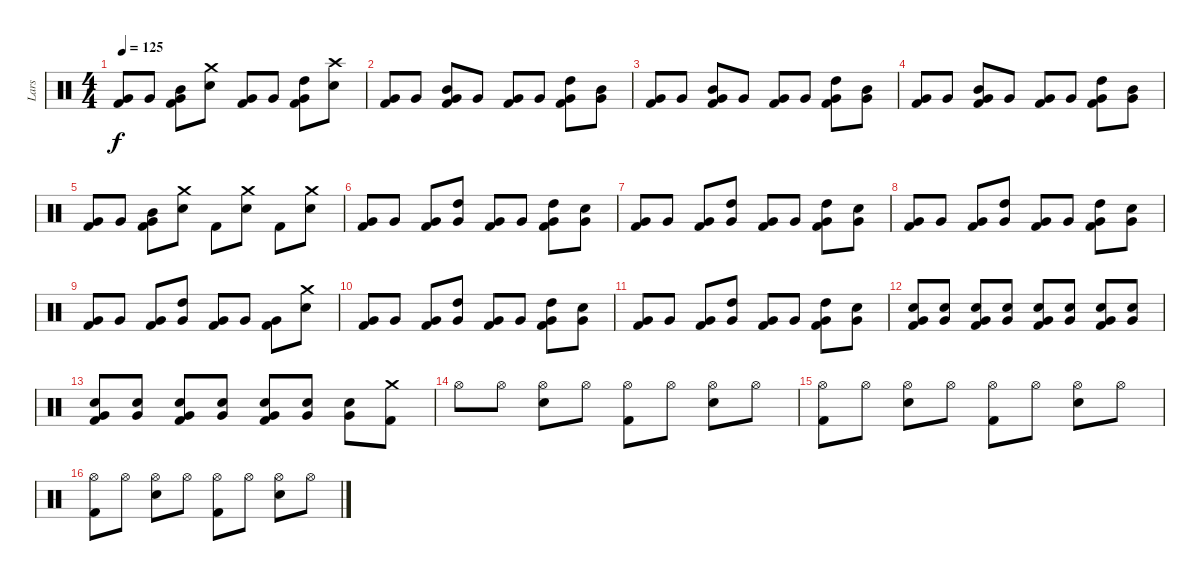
\track ("Lars" "Lars") {instrument percussion}
\staff {score}
\articulation defaults
\ts (4 4)
\tempo 125
\clef neutral
\ks c
("Very Low Tom (hit)" "Kick (hit) 2").8{dy f} "Very Low Tom (hit)".8 ("Mid Tom (hit)" "Very Low Tom (hit)" "Kick (hit) 2").8 ("Snare (hit) 2" "Crash medium (hit)").8 ("Very Low Tom (hit)" "Kick (hit) 2").8 "Very Low Tom (hit)".8 ("High Tom (hit)" "Very Low Tom (hit)" "Kick (hit) 2").8 ("Snare (hit) 2" "Crash high (hit)").8 |
("Very Low Tom (hit)" "Kick (hit) 2").8 "Very Low Tom (hit)".8 ("Mid Tom (hit)" "Very Low Tom (hit)" "Kick (hit) 2").8 "Very Low Tom (hit)".8 ("Very Low Tom (hit)" "Kick (hit) 2").8 "Very Low Tom (hit)".8 ("High Tom (hit)" "Very Low Tom (hit)" "Kick (hit) 2").8 ("Mid Tom (hit)" "Very Low Tom (hit)").8 |
("Very Low Tom (hit)" "Kick (hit) 2").8 "Very Low Tom (hit)".8 ("Mid Tom (hit)" "Very Low Tom (hit)" "Kick (hit) 2").8 "Very Low Tom (hit)".8 ("Very Low Tom (hit)" "Kick (hit) 2").8 "Very Low Tom (hit)".8 ("High Tom (hit)" "Very Low Tom (hit)" "Kick (hit) 2").8 ("Mid Tom (hit)" "Very Low Tom (hit)").8 |
("Very Low Tom (hit)" "Kick (hit) 2").8 "Very Low Tom (hit)".8 ("Mid Tom (hit)" "Very Low Tom (hit)" "Kick (hit) 2").8 "Very Low Tom (hit)".8 ("Very Low Tom (hit)" "Kick (hit) 2").8 "Very Low Tom (hit)".8 ("High Tom (hit)" "Very Low Tom (hit)" "Kick (hit) 2").8 ("Mid Tom (hit)" "Very Low Tom (hit)").8 |
("Very Low Tom (hit)" "Kick (hit) 2").8 "Very Low Tom (hit)".8 ("Mid Tom (hit)" "Very Low Tom (hit)" "Kick (hit) 2").8 ("Crash medium (hit)" "Snare (hit) 2").8 "Kick (hit) 2".8 ("Crash medium (hit)" "Snare (hit) 2").8 "Kick (hit) 2".8 ("Crash medium (hit)" "Snare (hit) 2").8 |
("Kick (hit) 2" "Very Low Tom (hit)").8 "Very Low Tom (hit)".8 ("Kick (hit) 2" "Very Low Tom (hit)").8 ("High Tom (hit)" "Very Low Tom (hit)").8 ("Kick (hit) 2" "Very Low Tom (hit)").8 "Very Low Tom (hit)".8 ("Kick (hit) 2" "High Tom (hit)" "Very Low Tom (hit)").8 ("Snare (hit) 2" "Very Low Tom (hit)").8 |
("Kick (hit) 2" "Very Low Tom (hit)").8 "Very Low Tom (hit)".8 ("Kick (hit) 2" "Very Low Tom (hit)").8 ("High Tom (hit)" "Very Low Tom (hit)").8 ("Kick (hit) 2" "Very Low Tom (hit)").8 "Very Low Tom (hit)".8 ("Kick (hit) 2" "High Tom (hit)" "Very Low Tom (hit)").8 ("Snare (hit) 2" "Very Low Tom (hit)").8 |
("Kick (hit) 2" "Very Low Tom (hit)").8 "Very Low Tom (hit)".8 ("Kick (hit) 2" "Very Low Tom (hit)").8 ("High Tom (hit)" "Very Low Tom (hit)").8 ("Kick (hit) 2" "Very Low Tom (hit)").8 "Very Low Tom (hit)".8 ("Kick (hit) 2" "High Tom (hit)" "Very Low Tom (hit)").8 ("Snare (hit) 2" "Very Low Tom (hit)").8 |
("Very Low Tom (hit)" "Kick (hit) 2").8 "Very Low Tom (hit)".8 ("Very Low Tom (hit)" "Kick (hit) 2").8 ("High Tom (hit)" "Very Low Tom (hit)").8 ("Very Low Tom (hit)" "Kick (hit) 2").8 "Very Low Tom (hit)".8 ("Very Low Tom (hit)" "Kick (hit) 2").8 ("Crash medium (hit)" "Snare (hit) 2").8 |
("Kick (hit) 2" "Very Low Tom (hit)").8 "Very Low Tom (hit)".8 ("Kick (hit) 2" "Very Low Tom (hit)").8 ("High Tom (hit)" "Very Low Tom (hit)").8 ("Kick (hit) 2" "Very Low Tom (hit)").8 "Very Low Tom (hit)".8 ("Kick (hit) 2" "High Tom (hit)" "Very Low Tom (hit)").8 ("Snare (hit) 2" "Very Low Tom (hit)").8 |
("Kick (hit) 2" "Very Low Tom (hit)").8 "Very Low Tom (hit)".8 ("Kick (hit) 2" "Very Low Tom (hit)").8 ("High Tom (hit)" "Very Low Tom (hit)").8 ("Kick (hit) 2" "Very Low Tom (hit)").8 "Very Low Tom (hit)".8 ("Kick (hit) 2" "High Tom (hit)" "Very Low Tom (hit)").8 ("Snare (hit) 2" "Very Low Tom (hit)").8 |
("Very Low Tom (hit)" "Snare (hit) 2" "Kick (hit) 2").8 ("Very Low Tom (hit)" "Snare (hit) 2").8 ("Very Low Tom (hit)" "Snare (hit) 2" "Kick (hit) 2").8 ("Very Low Tom (hit)" "Snare (hit) 2").8 ("Very Low Tom (hit)" "Snare (hit) 2" "Kick (hit) 2").8 ("Very Low Tom (hit)" "Snare (hit) 2").8 ("Very Low Tom (hit)" "Snare (hit) 2" "Kick (hit) 2").8 ("Very Low Tom (hit)" "Snare (hit) 2").8 |
("Very Low Tom (hit)" "Snare (hit) 2" "Kick (hit) 2").8 ("Very Low Tom (hit)" "Snare (hit) 2").8 ("Very Low Tom (hit)" "Snare (hit) 2" "Kick (hit) 2").8 ("Very Low Tom (hit)" "Snare (hit) 2").8 ("Very Low Tom (hit)" "Snare (hit) 2" "Kick (hit) 2").8 ("Very Low Tom (hit)" "Snare (hit) 2").8 ("Very Low Tom (hit)" "Snare (hit) 2").8 ("Kick (hit) 2" "Crash medium (hit)").8 |
"Hi-Hat (open)".8 "Hi-Hat (open)".8 ("Snare (hit) 2" "Hi-Hat (open)").8 "Hi-Hat (open)".8 ("Kick (hit) 2" "Hi-Hat (open)").8 "Hi-Hat (open)".8 ("Snare (hit) 2" "Hi-Hat (open)").8 "Hi-Hat (open)".8 |
("Kick (hit) 2" "Hi-Hat (open)").8 "Hi-Hat (open)".8 ("Snare (hit) 2" "Hi-Hat (open)").8 "Hi-Hat (open)".8 ("Kick (hit) 2" "Hi-Hat (open)").8 "Hi-Hat (open)".8 ("Snare (hit) 2" "Hi-Hat (open)").8 "Hi-Hat (open)".8 |
("Kick (hit) 2" "Hi-Hat (open)").8 "Hi-Hat (open)".8 ("Snare (hit) 2" "Hi-Hat (open)").8 "Hi-Hat (open)".8 ("Kick (hit) 2" "Hi-Hat (open)").8 "Hi-Hat (open)".8 ("Snare (hit) 2" "Hi-Hat (open)").8 "Hi-Hat (open)".8
